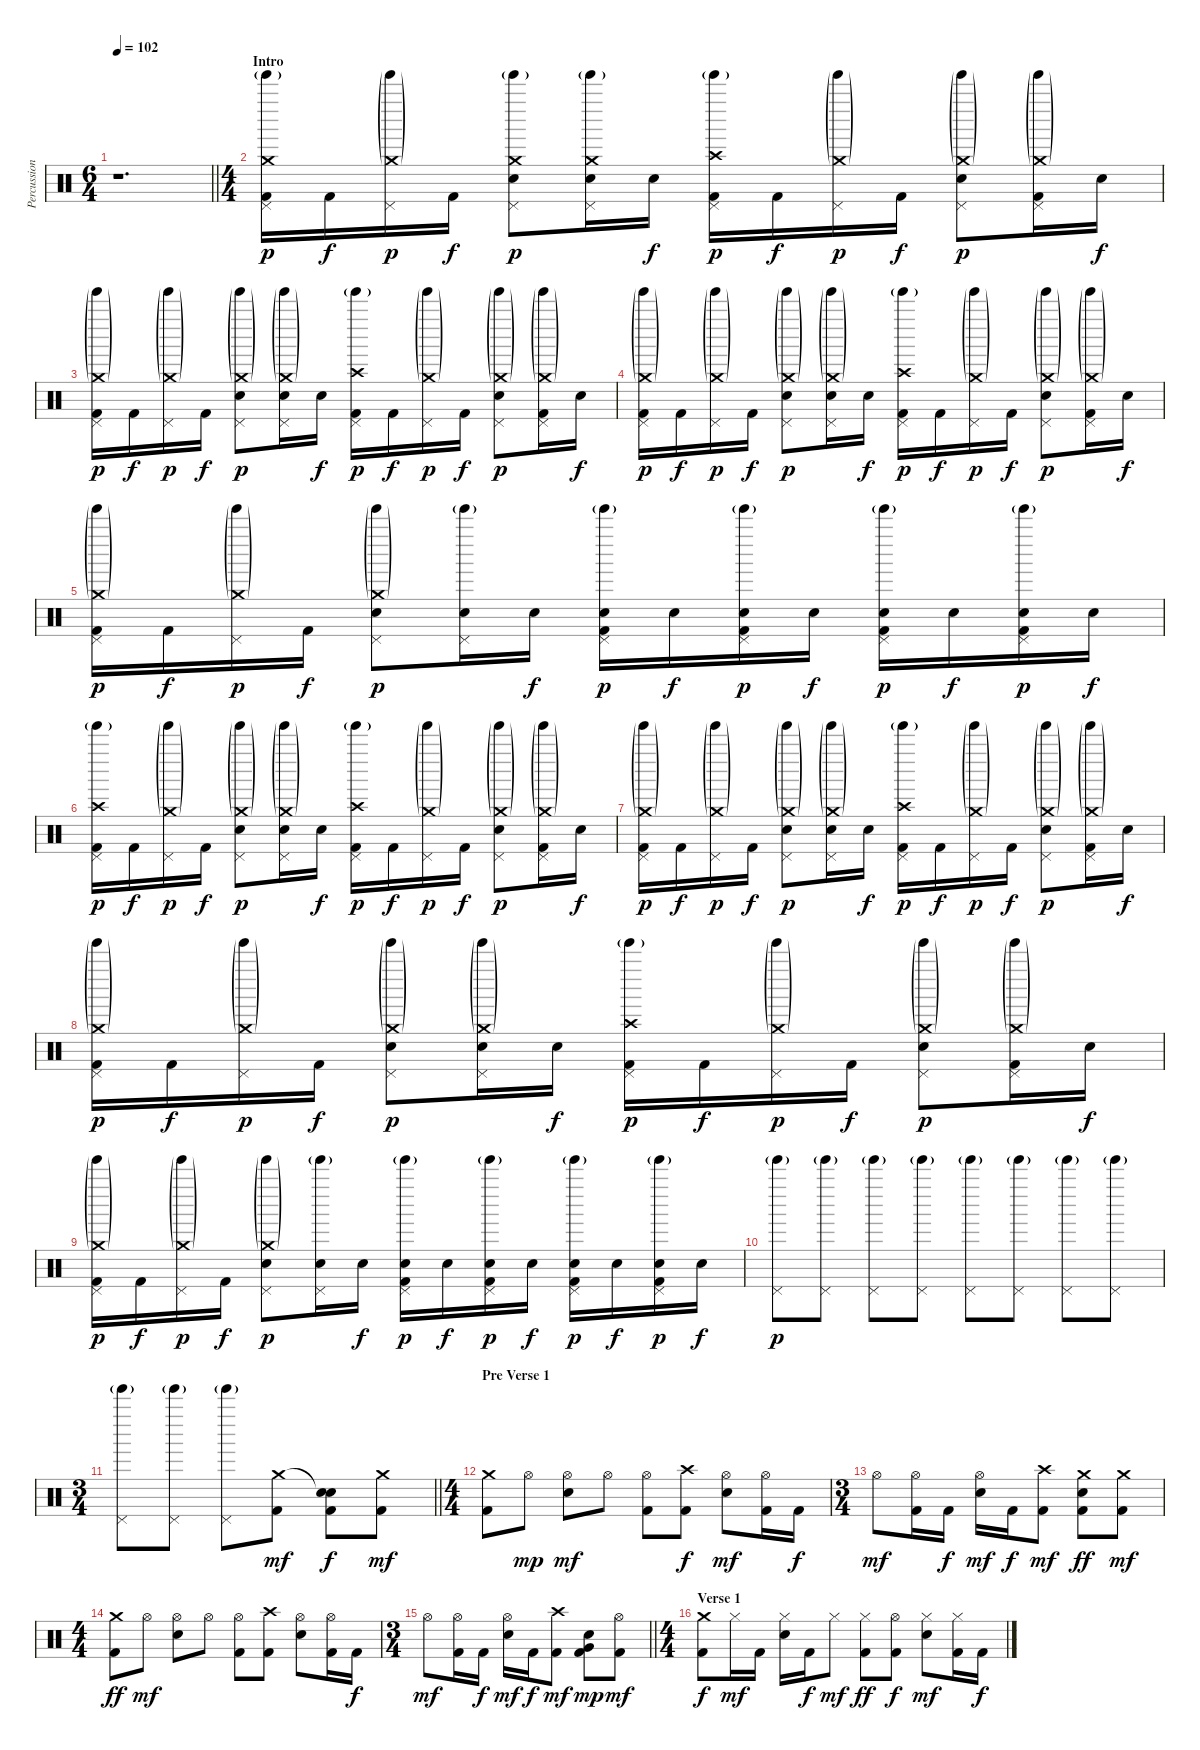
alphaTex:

\track ("Percussions" "Percussion") {instrument percussion}
\staff {score}
\articulation defaults
\ts (6 4)
\tempo 102
\clef neutral
\barLineRight lightlight
\ks c
r.1{d dy p} |
\ts (4 4)
\section ("" "Intro")
("Crash medium (hit)" "Tinkle Bell (hit)"{g} "Pedal Hi-Hat (hit)" "Kick (hit) 2").16 "Kick (hit) 2".16{dy f} ("Crash medium (hit)"{g} "Tinkle Bell (hit)"{g} "Pedal Hi-Hat (hit)").16{dy p} "Kick (hit) 2".16{dy f} ("Crash medium (hit)" "Tinkle Bell (hit)"{g} "Pedal Hi-Hat (hit)" "Electric Snare (hit)").8{dy p} ("Crash medium (hit)" "Tinkle Bell (hit)"{g} "Pedal Hi-Hat (hit)" "Electric Snare (hit)").16 "Electric Snare (hit)".16{dy f} ("Crash high (hit)" "Tinkle Bell (hit)"{g} "Pedal Hi-Hat (hit)" "Kick (hit) 2").16{dy p} "Kick (hit) 2".16{dy f} ("Crash medium (hit)"{g} "Tinkle Bell (hit)"{g} "Pedal Hi-Hat (hit)").16{dy p} "Kick (hit) 2".16{dy f} ("Crash medium (hit)"{g} "Tinkle Bell (hit)"{g} "Pedal Hi-Hat (hit)" "Electric Snare (hit)").8{dy p} ("Crash medium (hit)"{g} "Tinkle Bell (hit)"{g} "Pedal Hi-Hat (hit)" "Kick (hit) 2").16 "Electric Snare (hit)".16{dy f} |
("Crash medium (hit)"{g} "Tinkle Bell (hit)"{g} "Pedal Hi-Hat (hit)" "Kick (hit) 2").16{dy p} "Kick (hit) 2".16{dy f} ("Crash medium (hit)"{g} "Tinkle Bell (hit)"{g} "Pedal Hi-Hat (hit)").16{dy p} "Kick (hit) 2".16{dy f} ("Crash medium (hit)"{g} "Tinkle Bell (hit)"{g} "Pedal Hi-Hat (hit)" "Electric Snare (hit)").8{dy p} ("Crash medium (hit)"{g} "Tinkle Bell (hit)"{g} "Pedal Hi-Hat (hit)" "Electric Snare (hit)").16 "Electric Snare (hit)".16{dy f} ("Crash high (hit)" "Tinkle Bell (hit)"{g} "Pedal Hi-Hat (hit)" "Kick (hit) 2").16{dy p} "Kick (hit) 2".16{dy f} ("Crash medium (hit)"{g} "Tinkle Bell (hit)"{g} "Pedal Hi-Hat (hit)").16{dy p} "Kick (hit) 2".16{dy f} ("Crash medium (hit)"{g} "Tinkle Bell (hit)"{g} "Pedal Hi-Hat (hit)" "Electric Snare (hit)").8{dy p} ("Crash medium (hit)"{g} "Tinkle Bell (hit)"{g} "Pedal Hi-Hat (hit)" "Kick (hit) 2").16 "Electric Snare (hit)".16{dy f} |
("Crash medium (hit)"{g} "Tinkle Bell (hit)"{g} "Pedal Hi-Hat (hit)" "Kick (hit) 2").16{dy p} "Kick (hit) 2".16{dy f} ("Crash medium (hit)"{g} "Tinkle Bell (hit)"{g} "Pedal Hi-Hat (hit)").16{dy p} "Kick (hit) 2".16{dy f} ("Crash medium (hit)"{g} "Tinkle Bell (hit)"{g} "Pedal Hi-Hat (hit)" "Electric Snare (hit)").8{dy p} ("Crash medium (hit)"{g} "Tinkle Bell (hit)"{g} "Pedal Hi-Hat (hit)" "Electric Snare (hit)").16 "Electric Snare (hit)".16{dy f} ("Crash high (hit)" "Tinkle Bell (hit)"{g} "Pedal Hi-Hat (hit)" "Kick (hit) 2").16{dy p} "Kick (hit) 2".16{dy f} ("Crash medium (hit)"{g} "Tinkle Bell (hit)"{g} "Pedal Hi-Hat (hit)").16{dy p} "Kick (hit) 2".16{dy f} ("Crash medium (hit)"{g} "Tinkle Bell (hit)"{g} "Pedal Hi-Hat (hit)" "Electric Snare (hit)").8{dy p} ("Crash medium (hit)"{g} "Tinkle Bell (hit)"{g} "Pedal Hi-Hat (hit)" "Kick (hit) 2").16 "Electric Snare (hit)".16{dy f} |
("Crash medium (hit)"{g} "Tinkle Bell (hit)"{g} "Pedal Hi-Hat (hit)" "Kick (hit) 2").16{dy p} "Kick (hit) 2".16{dy f} ("Crash medium (hit)"{g} "Tinkle Bell (hit)"{g} "Pedal Hi-Hat (hit)").16{dy p} "Kick (hit) 2".16{dy f} ("Crash medium (hit)"{g} "Tinkle Bell (hit)"{g} "Pedal Hi-Hat (hit)" "Electric Snare (hit)").8{dy p} ("Tinkle Bell (hit)"{g} "Pedal Hi-Hat (hit)" "Electric Snare (hit)").16 "Electric Snare (hit)".16{dy f} ("Tinkle Bell (hit)"{g} "Pedal Hi-Hat (hit)" "Electric Snare (hit)" "Kick (hit) 2").16{dy p} "Electric Snare (hit)".16{dy f} ("Tinkle Bell (hit)"{g} "Pedal Hi-Hat (hit)" "Electric Snare (hit)" "Kick (hit) 2").16{dy p} "Electric Snare (hit)".16{dy f} ("Tinkle Bell (hit)"{g} "Pedal Hi-Hat (hit)" "Electric Snare (hit)" "Kick (hit) 2").16{dy p} "Electric Snare (hit)".16{dy f} ("Tinkle Bell (hit)"{g} "Pedal Hi-Hat (hit)" "Electric Snare (hit)" "Kick (hit) 2").16{dy p} "Electric Snare (hit)".16{dy f} |
("Crash high (hit)" "Tinkle Bell (hit)"{g} "Pedal Hi-Hat (hit)" "Kick (hit) 2").16{dy p} "Kick (hit) 2".16{dy f} ("Crash medium (hit)"{g} "Tinkle Bell (hit)"{g} "Pedal Hi-Hat (hit)").16{dy p} "Kick (hit) 2".16{dy f} ("Crash medium (hit)"{g} "Tinkle Bell (hit)"{g} "Pedal Hi-Hat (hit)" "Electric Snare (hit)").8{dy p} ("Crash medium (hit)"{g} "Tinkle Bell (hit)"{g} "Pedal Hi-Hat (hit)" "Electric Snare (hit)").16 "Electric Snare (hit)".16{dy f} ("Crash high (hit)" "Tinkle Bell (hit)"{g} "Pedal Hi-Hat (hit)" "Kick (hit) 2").16{dy p} "Kick (hit) 2".16{dy f} ("Crash medium (hit)"{g} "Tinkle Bell (hit)"{g} "Pedal Hi-Hat (hit)").16{dy p} "Kick (hit) 2".16{dy f} ("Crash medium (hit)"{g} "Tinkle Bell (hit)"{g} "Pedal Hi-Hat (hit)" "Electric Snare (hit)").8{dy p} ("Crash medium (hit)"{g} "Tinkle Bell (hit)"{g} "Pedal Hi-Hat (hit)" "Kick (hit) 2").16 "Electric Snare (hit)".16{dy f} |
("Crash medium (hit)"{g} "Tinkle Bell (hit)"{g} "Pedal Hi-Hat (hit)" "Kick (hit) 2").16{dy p} "Kick (hit) 2".16{dy f} ("Crash medium (hit)"{g} "Tinkle Bell (hit)"{g} "Pedal Hi-Hat (hit)").16{dy p} "Kick (hit) 2".16{dy f} ("Crash medium (hit)"{g} "Tinkle Bell (hit)"{g} "Pedal Hi-Hat (hit)" "Electric Snare (hit)").8{dy p} ("Crash medium (hit)"{g} "Tinkle Bell (hit)"{g} "Pedal Hi-Hat (hit)" "Electric Snare (hit)").16 "Electric Snare (hit)".16{dy f} ("Crash high (hit)" "Tinkle Bell (hit)"{g} "Pedal Hi-Hat (hit)" "Kick (hit) 2").16{dy p} "Kick (hit) 2".16{dy f} ("Crash medium (hit)"{g} "Tinkle Bell (hit)"{g} "Pedal Hi-Hat (hit)").16{dy p} "Kick (hit) 2".16{dy f} ("Crash medium (hit)"{g} "Tinkle Bell (hit)"{g} "Pedal Hi-Hat (hit)" "Electric Snare (hit)").8{dy p} ("Crash medium (hit)"{g} "Tinkle Bell (hit)"{g} "Pedal Hi-Hat (hit)" "Kick (hit) 2").16 "Electric Snare (hit)".16{dy f} |
("Crash medium (hit)"{g} "Tinkle Bell (hit)"{g} "Pedal Hi-Hat (hit)" "Kick (hit) 2").16{dy p} "Kick (hit) 2".16{dy f} ("Crash medium (hit)"{g} "Tinkle Bell (hit)"{g} "Pedal Hi-Hat (hit)").16{dy p} "Kick (hit) 2".16{dy f} ("Crash medium (hit)"{g} "Tinkle Bell (hit)"{g} "Pedal Hi-Hat (hit)" "Electric Snare (hit)").8{dy p} ("Crash medium (hit)"{g} "Tinkle Bell (hit)"{g} "Pedal Hi-Hat (hit)" "Electric Snare (hit)").16 "Electric Snare (hit)".16{dy f} ("Crash high (hit)" "Tinkle Bell (hit)"{g} "Pedal Hi-Hat (hit)" "Kick (hit) 2").16{dy p} "Kick (hit) 2".16{dy f} ("Crash medium (hit)"{g} "Tinkle Bell (hit)"{g} "Pedal Hi-Hat (hit)").16{dy p} "Kick (hit) 2".16{dy f} ("Crash medium (hit)"{g} "Tinkle Bell (hit)"{g} "Pedal Hi-Hat (hit)" "Electric Snare (hit)").8{dy p} ("Crash medium (hit)"{g} "Tinkle Bell (hit)"{g} "Pedal Hi-Hat (hit)" "Kick (hit) 2").16 "Electric Snare (hit)".16{dy f} |
("Crash medium (hit)"{g} "Tinkle Bell (hit)"{g} "Pedal Hi-Hat (hit)" "Kick (hit) 2").16{dy p} "Kick (hit) 2".16{dy f} ("Crash medium (hit)"{g} "Tinkle Bell (hit)"{g} "Pedal Hi-Hat (hit)").16{dy p} "Kick (hit) 2".16{dy f} ("Crash medium (hit)"{g} "Tinkle Bell (hit)"{g} "Pedal Hi-Hat (hit)" "Electric Snare (hit)").8{dy p} ("Tinkle Bell (hit)"{g} "Pedal Hi-Hat (hit)" "Electric Snare (hit)").16 "Electric Snare (hit)".16{dy f} ("Tinkle Bell (hit)"{g} "Pedal Hi-Hat (hit)" "Electric Snare (hit)" "Kick (hit) 2").16{dy p} "Electric Snare (hit)".16{dy f} ("Tinkle Bell (hit)"{g} "Pedal Hi-Hat (hit)" "Electric Snare (hit)" "Kick (hit) 2").16{dy p} "Electric Snare (hit)".16{dy f} ("Tinkle Bell (hit)"{g} "Pedal Hi-Hat (hit)" "Electric Snare (hit)" "Kick (hit) 2").16{dy p} "Electric Snare (hit)".16{dy f} ("Tinkle Bell (hit)"{g} "Pedal Hi-Hat (hit)" "Electric Snare (hit)" "Kick (hit) 2").16{dy p} "Electric Snare (hit)".16{dy f} |
("Tinkle Bell (hit)"{g} "Pedal Hi-Hat (hit)").8{dy p} ("Tinkle Bell (hit)"{g} "Pedal Hi-Hat (hit)").8 ("Tinkle Bell (hit)"{g} "Pedal Hi-Hat (hit)").8 ("Tinkle Bell (hit)"{g} "Pedal Hi-Hat (hit)").8 ("Tinkle Bell (hit)"{g} "Pedal Hi-Hat (hit)").8 ("Tinkle Bell (hit)"{g} "Pedal Hi-Hat (hit)").8 ("Tinkle Bell (hit)"{g} "Pedal Hi-Hat (hit)").8 ("Tinkle Bell (hit)"{g} "Pedal Hi-Hat (hit)").8 |
\ts (3 4)
\barLineRight lightlight
("Tinkle Bell (hit)"{g} "Pedal Hi-Hat (hit)").8 ("Tinkle Bell (hit)"{g} "Pedal Hi-Hat (hit)").8 ("Tinkle Bell (hit)"{g} "Pedal Hi-Hat (hit)").8 ("Crash medium (hit)" "Kick (hit) 2").8{dy mf} ("Snare (hit)"{t} "Electric Snare (hit)" "Kick (hit) 2").8{dy f} ("Crash medium (hit)" "Kick (hit) 2").8{dy mf} |
\ts (4 4)
\section ("" "Pre Verse 1")
("Crash medium (hit)" "Kick (hit) 2").8 "Hi-Hat (open)".8{dy mp} ("Hi-Hat (open)" "Electric Snare (hit)").8{dy mf} "Hi-Hat (open)".8 ("Hi-Hat (open)" "Kick (hit) 2").8 ("Crash high (hit)" "Kick (hit) 2").8{dy f} ("Hi-Hat (open)" "Electric Snare (hit)").8{dy mf} ("Hi-Hat (open)" "Kick (hit) 2").16 "Kick (hit) 2".16{dy f} |
\ts (3 4)
"Hi-Hat (open)".8{dy mf} ("Hi-Hat (open)" "Kick (hit) 2").16 "Kick (hit) 2".16{dy f} ("Hi-Hat (open)" "Electric Snare (hit)").16{dy mf} "Kick (hit) 2".16{dy f} ("Crash high (hit)" "Kick (hit) 2").8{dy mf} ("Crash medium (hit)" "Electric Snare (hit)" "Kick (hit) 2").8{dy ff} ("Crash medium (hit)" "Kick (hit) 2").8{dy mf} |
\ts (4 4)
("Crash medium (hit)" "Kick (hit) 2").8{dy ff} "Hi-Hat (open)".8{dy mf} ("Hi-Hat (open)" "Electric Snare (hit)").8 "Hi-Hat (open)".8 ("Hi-Hat (open)" "Kick (hit) 2").8 ("Crash high (hit)" "Kick (hit) 2").8 ("Hi-Hat (open)" "Electric Snare (hit)").8 ("Hi-Hat (open)" "Kick (hit) 2").16 "Kick (hit) 2".16{dy f} |
\ts (3 4)
\barLineRight lightlight "Hi-Hat (open)".8{dy mf}
("Hi-Hat (open)" "Kick (hit) 2").16 "Kick (hit) 2".16{dy f} ("Hi-Hat (open)" "Electric Snare (hit)").16{dy mf} "Kick (hit) 2".16{dy f} ("Crash high (hit)" "Kick (hit) 2").8{dy mf} ("Very Low Tom (hit)" "Electric Snare (hit)" "Kick (hit) 2").8{dy mp} ("Hi-Hat (open)" "Kick (hit) 2").8{dy mf} |
\ts (4 4)
\section ("" "Verse 1")
("Crash medium (hit)" "Kick (hit) 2").8{dy f} "Hi-Hat (closed)".16{dy mf} "Kick (hit) 2".16 ("Hi-Hat (closed)" "Electric Snare (hit)").16 "Kick (hit) 2".16{dy f} "Hi-Hat (closed)".8{dy mf} ("Hi-Hat (closed)" "Kick (hit) 2").8{dy ff} ("Hi-Hat (open)" "Kick (hit) 2").8{dy f} ("Hi-Hat (closed)" "Electric Snare (hit)").8{dy mf} ("Hi-Hat (closed)" "Kick (hit) 2").16 "Kick (hit) 2".16{dy f}
